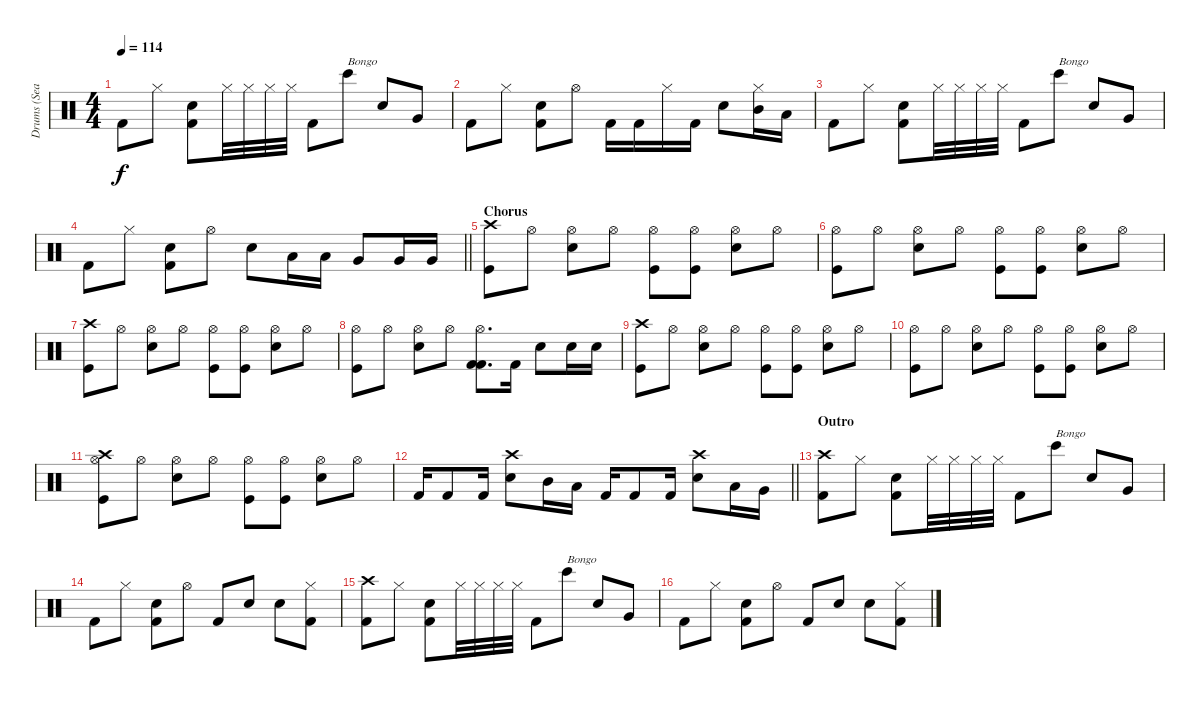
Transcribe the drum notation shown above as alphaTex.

\track ("Drums (Sean)" "Drums (Sea") {instrument percussion}
\staff {score}
\articulation defaults
\ts (4 4)
\tempo 114
\clef neutral
\ks c "Kick (hit) 2".8{dy f} "Hi-Hat (closed)".8
("Snare (hit) 2" "Kick (hit) 2").8 "Hi-Hat (closed)".32 "Hi-Hat (closed)".32 "Hi-Hat (closed)".32 "Hi-Hat (closed)".32 "Kick (hit) 2".8 "Bongo High (hit)".8{txt "Bongo"} "Snare (hit) 2".8 "Very Low Tom (hit)".8 |
"Kick (hit) 2".8 "Hi-Hat (closed)".8 ("Snare (hit) 2" "Kick (hit) 2").8 "Hi-Hat (open)".8 "Kick (hit) 2".16 "Kick (hit) 2".16 "Hi-Hat (closed)".16 "Kick (hit) 2".16 "Snare (hit) 2".8 ("Hi-Hat (closed)" "Mid Tom (hit)").16 "Low Tom (hit)".16 |
"Kick (hit) 2".8 "Hi-Hat (closed)".8 ("Snare (hit) 2" "Kick (hit) 2").8 "Hi-Hat (closed)".32 "Hi-Hat (closed)".32 "Hi-Hat (closed)".32 "Hi-Hat (closed)".32 "Kick (hit) 2".8 "Bongo High (hit)".8{txt "Bongo"} "Snare (hit) 2".8 "Very Low Tom (hit)".8 |
\barLineRight lightlight "Kick (hit) 2".8 "Hi-Hat (closed)".8
("Snare (hit) 2" "Kick (hit) 2").8 "Hi-Hat (open)".8 "Snare (hit) 2".8 "Low Tom (hit)".16 "Low Tom (hit)".16 "Very Low Tom (hit)".8 "Very Low Tom (hit)".16 "Very Low Tom (hit)".16 |
\section ("" "Chorus")
("Kick (hit)" "Crash high (hit)").8 "Hi-Hat (open)".8 ("Snare (hit) 2" "Hi-Hat (open)").8 "Hi-Hat (open)".8 ("Kick (hit)" "Hi-Hat (open)").8 ("Kick (hit)" "Hi-Hat (open)").8 ("Snare (hit) 2" "Hi-Hat (open)").8 "Hi-Hat (open)".8 |
("Kick (hit)" "Hi-Hat (open)").8 "Hi-Hat (open)".8 ("Snare (hit) 2" "Hi-Hat (open)").8 "Hi-Hat (open)".8 ("Kick (hit)" "Hi-Hat (open)").8 ("Kick (hit)" "Hi-Hat (open)").8 ("Snare (hit) 2" "Hi-Hat (open)").8 "Hi-Hat (open)".8 |
("Kick (hit)" "Crash high (hit)").8 "Hi-Hat (open)".8 ("Snare (hit) 2" "Hi-Hat (open)").8 "Hi-Hat (open)".8 ("Kick (hit)" "Hi-Hat (open)").8 ("Kick (hit)" "Hi-Hat (open)").8 ("Snare (hit) 2" "Hi-Hat (open)").8 "Hi-Hat (open)".8 |
("Kick (hit)" "Hi-Hat (open)").8 "Hi-Hat (open)".8 ("Snare (hit) 2" "Hi-Hat (open)").8 "Hi-Hat (open)".8 ("Kick (hit) 2" "Kick (hit) 2" "Hi-Hat (open)").8{d} "Kick (hit) 2".16 "Snare (hit) 2".8 "Snare (hit) 2".16 "Snare (hit) 2".16 |
("Kick (hit)" "Crash high (hit)").8 "Hi-Hat (open)".8 ("Snare (hit) 2" "Hi-Hat (open)").8 "Hi-Hat (open)".8 ("Kick (hit)" "Hi-Hat (open)").8 ("Kick (hit)" "Hi-Hat (open)").8 ("Snare (hit) 2" "Hi-Hat (open)").8 "Hi-Hat (open)".8 |
("Kick (hit)" "Hi-Hat (open)").8 "Hi-Hat (open)".8 ("Snare (hit) 2" "Hi-Hat (open)").8 "Hi-Hat (open)".8 ("Kick (hit)" "Hi-Hat (open)").8 ("Kick (hit)" "Hi-Hat (open)").8 ("Snare (hit) 2" "Hi-Hat (open)").8 "Hi-Hat (open)".8 |
("Kick (hit)" "Hi-Hat (open)" "Crash high (hit)").8 "Hi-Hat (open)".8 ("Snare (hit) 2" "Hi-Hat (open)").8 "Hi-Hat (open)".8 ("Kick (hit)" "Hi-Hat (open)").8 ("Kick (hit)" "Hi-Hat (open)").8 ("Snare (hit) 2" "Hi-Hat (open)").8 "Hi-Hat (open)".8 |
\barLineRight lightlight "Kick (hit) 2".16 "Kick (hit) 2".8 "Kick (hit) 2".16
("Crash high (hit)" "Snare (hit) 2").8 "Mid Tom (hit)".16 "Low Tom (hit)".16 "Kick (hit) 2".16 "Kick (hit) 2".8 "Kick (hit) 2".16 ("Crash high (hit)" "Snare (hit) 2").8 "Low Tom (hit)".16 "Very Low Tom (hit)".16 |
\section ("" "Outro")
("Crash high (hit)" "Kick (hit) 2").8 "Hi-Hat (closed)".8 ("Snare (hit) 2" "Kick (hit) 2").8 "Hi-Hat (closed)".32 "Hi-Hat (closed)".32 "Hi-Hat (closed)".32 "Hi-Hat (closed)".32 "Kick (hit) 2".8 "Bongo High (hit)".8{txt "Bongo"} "Snare (hit) 2".8 "Very Low Tom (hit)".8 |
"Kick (hit) 2".8 "Hi-Hat (closed)".8 ("Snare (hit) 2" "Kick (hit) 2").8 "Hi-Hat (open)".8 "Kick (hit) 2".8 "Snare (hit) 2".8 "Snare (hit) 2".8 ("Hi-Hat (closed)" "Kick (hit) 2").8 |
("Crash high (hit)" "Kick (hit) 2").8 "Hi-Hat (closed)".8 ("Snare (hit) 2" "Kick (hit) 2").8 "Hi-Hat (closed)".32 "Hi-Hat (closed)".32 "Hi-Hat (closed)".32 "Hi-Hat (closed)".32 "Kick (hit) 2".8 "Bongo High (hit)".8{txt "Bongo"} "Snare (hit) 2".8 "Very Low Tom (hit)".8 |
"Kick (hit) 2".8 "Hi-Hat (closed)".8 ("Snare (hit) 2" "Kick (hit) 2").8 "Hi-Hat (open)".8 "Kick (hit) 2".8 "Snare (hit) 2".8 "Snare (hit) 2".8 ("Hi-Hat (closed)" "Kick (hit) 2").8
